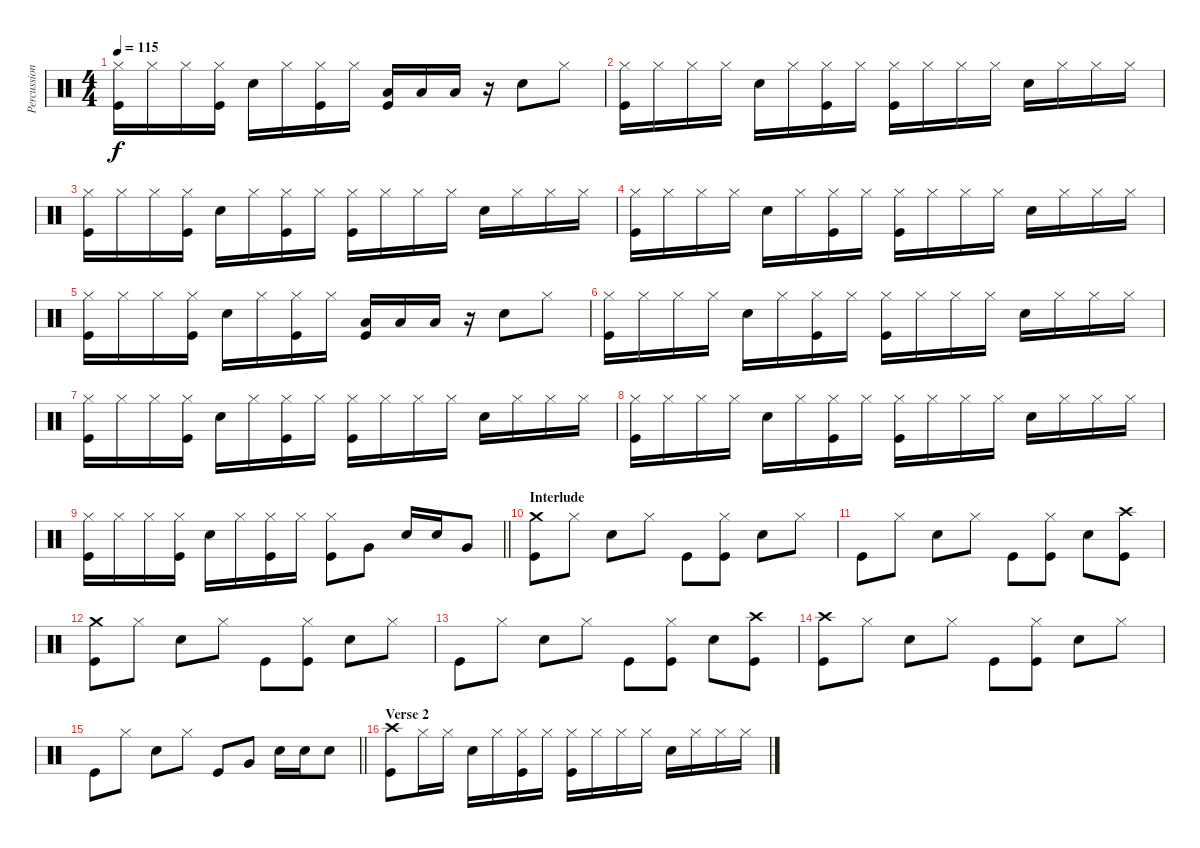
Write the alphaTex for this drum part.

\track ("Percussion" "Percussion") {instrument percussion}
\staff {score}
\articulation defaults
\ts (4 4)
\tempo 115
\clef neutral
\ks c
("Kick (hit)" "Hi-Hat (closed)").16{dy f} "Hi-Hat (closed)".16 "Hi-Hat (closed)".16 ("Kick (hit)" "Hi-Hat (closed)").16 "Snare (hit) 2".16 "Hi-Hat (closed)".16 ("Kick (hit)" "Hi-Hat (closed)").16 "Hi-Hat (closed)".16 ("Low Floor Tom (hit)" "Kick (hit)").16 "Low Floor Tom (hit)".16 "Low Floor Tom (hit)".16 r.16 "Snare (hit) 2".8 "Hi-Hat (closed)".8 |
("Kick (hit)" "Hi-Hat (closed)").16 "Hi-Hat (closed)".16 "Hi-Hat (closed)".16 "Hi-Hat (closed)".16 "Snare (hit) 2".16 "Hi-Hat (closed)".16 ("Kick (hit)" "Hi-Hat (closed)").16 "Hi-Hat (closed)".16 ("Kick (hit)" "Hi-Hat (closed)").16 "Hi-Hat (closed)".16 "Hi-Hat (closed)".16 "Hi-Hat (closed)".16 "Snare (hit) 2".16 "Hi-Hat (closed)".16 "Hi-Hat (closed)".16 "Hi-Hat (closed)".16 |
("Kick (hit)" "Hi-Hat (closed)").16 "Hi-Hat (closed)".16 "Hi-Hat (closed)".16 ("Kick (hit)" "Hi-Hat (closed)").16 "Snare (hit) 2".16 "Hi-Hat (closed)".16 ("Kick (hit)" "Hi-Hat (closed)").16 "Hi-Hat (closed)".16 ("Kick (hit)" "Hi-Hat (closed)").16 "Hi-Hat (closed)".16 "Hi-Hat (closed)".16 "Hi-Hat (closed)".16 "Snare (hit) 2".16 "Hi-Hat (closed)".16 "Hi-Hat (closed)".16 "Hi-Hat (closed)".16 |
("Kick (hit)" "Hi-Hat (closed)").16 "Hi-Hat (closed)".16 "Hi-Hat (closed)".16 "Hi-Hat (closed)".16 "Snare (hit) 2".16 "Hi-Hat (closed)".16 ("Kick (hit)" "Hi-Hat (closed)").16 "Hi-Hat (closed)".16 ("Kick (hit)" "Hi-Hat (closed)").16 "Hi-Hat (closed)".16 "Hi-Hat (closed)".16 "Hi-Hat (closed)".16 "Snare (hit) 2".16 "Hi-Hat (closed)".16 "Hi-Hat (closed)".16 "Hi-Hat (closed)".16 |
("Kick (hit)" "Hi-Hat (closed)").16 "Hi-Hat (closed)".16 "Hi-Hat (closed)".16 ("Kick (hit)" "Hi-Hat (closed)").16 "Snare (hit) 2".16 "Hi-Hat (closed)".16 ("Kick (hit)" "Hi-Hat (closed)").16 "Hi-Hat (closed)".16 ("Low Floor Tom (hit)" "Kick (hit)").16 "Low Floor Tom (hit)".16 "Low Floor Tom (hit)".16 r.16 "Snare (hit) 2".8 "Hi-Hat (closed)".8 |
("Kick (hit)" "Hi-Hat (closed)").16 "Hi-Hat (closed)".16 "Hi-Hat (closed)".16 "Hi-Hat (closed)".16 "Snare (hit) 2".16 "Hi-Hat (closed)".16 ("Kick (hit)" "Hi-Hat (closed)").16 "Hi-Hat (closed)".16 ("Kick (hit)" "Hi-Hat (closed)").16 "Hi-Hat (closed)".16 "Hi-Hat (closed)".16 "Hi-Hat (closed)".16 "Snare (hit) 2".16 "Hi-Hat (closed)".16 "Hi-Hat (closed)".16 "Hi-Hat (closed)".16 |
("Kick (hit)" "Hi-Hat (closed)").16 "Hi-Hat (closed)".16 "Hi-Hat (closed)".16 ("Kick (hit)" "Hi-Hat (closed)").16 "Snare (hit) 2".16 "Hi-Hat (closed)".16 ("Kick (hit)" "Hi-Hat (closed)").16 "Hi-Hat (closed)".16 ("Kick (hit)" "Hi-Hat (closed)").16 "Hi-Hat (closed)".16 "Hi-Hat (closed)".16 "Hi-Hat (closed)".16 "Snare (hit) 2".16 "Hi-Hat (closed)".16 "Hi-Hat (closed)".16 "Hi-Hat (closed)".16 |
("Kick (hit)" "Hi-Hat (closed)").16 "Hi-Hat (closed)".16 "Hi-Hat (closed)".16 "Hi-Hat (closed)".16 "Snare (hit) 2".16 "Hi-Hat (closed)".16 ("Kick (hit)" "Hi-Hat (closed)").16 "Hi-Hat (closed)".16 ("Kick (hit)" "Hi-Hat (closed)").16 "Hi-Hat (closed)".16 "Hi-Hat (closed)".16 "Hi-Hat (closed)".16 "Snare (hit) 2".16 "Hi-Hat (closed)".16 "Hi-Hat (closed)".16 "Hi-Hat (closed)".16 |
\barLineRight lightlight
("Kick (hit)" "Hi-Hat (closed)").16 "Hi-Hat (closed)".16 "Hi-Hat (closed)".16 ("Kick (hit)" "Hi-Hat (closed)").16 "Snare (hit) 2".16 "Hi-Hat (closed)".16 ("Kick (hit)" "Hi-Hat (closed)").16 "Hi-Hat (closed)".16 ("Kick (hit)" "Hi-Hat (closed)").8 "Very Low Tom (hit)".8 "Snare (hit) 2".16 "Snare (hit) 2".16 "Very Low Tom (hit)".8 |
\section ("" "Interlude")
("Crash medium (hit)" "Kick (hit)").8 "Hi-Hat (closed)".8 "Snare (hit) 2".8 "Hi-Hat (closed)".8 "Kick (hit)".8 ("Kick (hit)" "Hi-Hat (closed)").8 "Snare (hit) 2".8 "Hi-Hat (closed)".8 |
"Kick (hit)".8 "Hi-Hat (closed)".8 "Snare (hit) 2".8 "Hi-Hat (closed)".8 "Kick (hit)".8 ("Kick (hit)" "Hi-Hat (closed)").8 "Snare (hit) 2".8 ("Kick (hit)" "Crash high (hit)").8 |
("Crash medium (hit)" "Kick (hit)").8 "Hi-Hat (closed)".8 "Snare (hit) 2".8 "Hi-Hat (closed)".8 "Kick (hit)".8 ("Kick (hit)" "Hi-Hat (closed)").8 "Snare (hit) 2".8 "Hi-Hat (closed)".8 |
"Kick (hit)".8 "Hi-Hat (closed)".8 "Snare (hit) 2".8 "Hi-Hat (closed)".8 "Kick (hit)".8 ("Kick (hit)" "Hi-Hat (closed)").8 "Snare (hit) 2".8 ("Kick (hit)" "Crash high (hit)").8 |
("Kick (hit)" "Crash high (hit)").8 "Hi-Hat (closed)".8 "Snare (hit) 2".8 "Hi-Hat (closed)".8 "Kick (hit)".8 ("Kick (hit)" "Hi-Hat (closed)").8 "Snare (hit) 2".8 "Hi-Hat (closed)".8 |
\barLineRight lightlight "Kick (hit)".8 "Hi-Hat (closed)".8 "Snare (hit) 2".8 "Hi-Hat (closed)".8 "Kick (hit)".8 "Very Low Tom (hit)".8 "Snare (hit) 2".16 "Snare (hit) 2".16 "Snare (hit) 2".8
|
\section ("" "Verse 2")
("Kick (hit)" "Crash high (hit)").8 "Hi-Hat (closed)".16 "Hi-Hat (closed)".16 "Snare (hit) 2".16 "Hi-Hat (closed)".16 ("Kick (hit)" "Hi-Hat (closed)").16 "Hi-Hat (closed)".16 ("Kick (hit)" "Hi-Hat (closed)").16 "Hi-Hat (closed)".16 "Hi-Hat (closed)".16 "Hi-Hat (closed)".16 "Snare (hit) 2".16 "Hi-Hat (closed)".16 "Hi-Hat (closed)".16 "Hi-Hat (closed)".16
